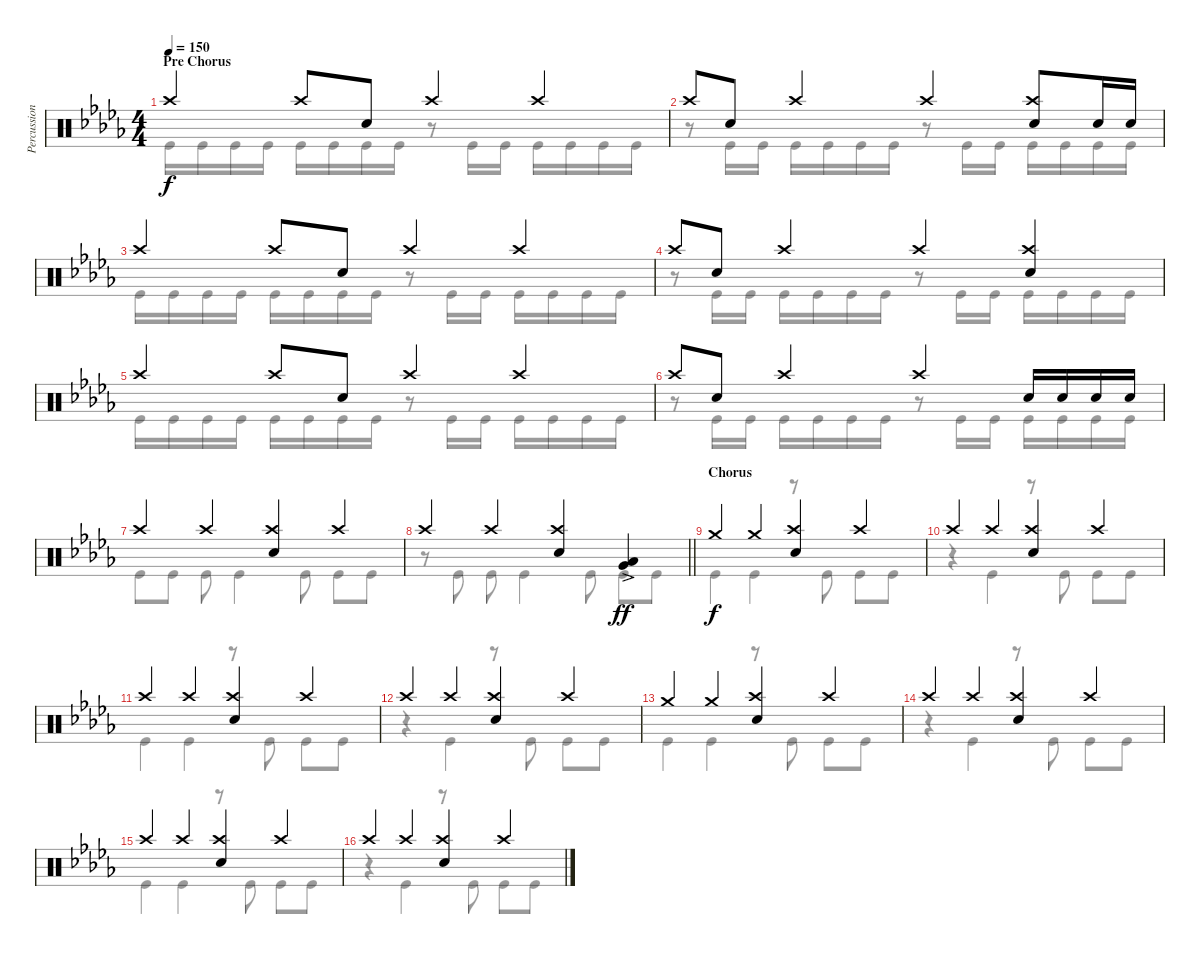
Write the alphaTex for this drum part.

\track ("Percussion" "Percussion") {instrument percussion}
\staff {score}
\articulation defaults
\voice
\ts (4 4)
\section ("" "Pre Chorus")
\tempo 150
\clef neutral
\ks bbminor "Crash high (hit)".4{dy f} "Crash high (hit)".8 "Electric Snare (hit)".8 "Crash high (hit)".4 "Crash high (hit)".4
|
"Crash high (hit)".8 "Electric Snare (hit)".8 "Crash high (hit)".4 "Crash high (hit)".4 ("Crash high (hit)" "Electric Snare (hit)").8 "Electric Snare (hit)".16 "Electric Snare (hit)".16 |
"Crash high (hit)".4 "Crash high (hit)".8 "Electric Snare (hit)".8 "Crash high (hit)".4 "Crash high (hit)".4 |
"Crash high (hit)".8 "Electric Snare (hit)".8 "Crash high (hit)".4 "Crash high (hit)".4 ("Crash high (hit)" "Electric Snare (hit)").4 |
"Crash high (hit)".4 "Crash high (hit)".8 "Electric Snare (hit)".8 "Crash high (hit)".4 "Crash high (hit)".4 |
"Crash high (hit)".8 "Electric Snare (hit)".8 "Crash high (hit)".4 "Crash high (hit)".4 "Electric Snare (hit)".16 "Electric Snare (hit)".16 "Electric Snare (hit)".16 "Electric Snare (hit)".16 |
"Crash high (hit)".4 "Crash high (hit)".4 ("Crash high (hit)" "Electric Snare (hit)").4 "Crash high (hit)".4 |
\barLineRight lightlight "Crash high (hit)".4 "Crash high (hit)".4
("Crash high (hit)" "Electric Snare (hit)").4 ("Low Tom (hit)"{ac} "Very Low Tom (hit)"{ac}).4{dy ff} |
\section ("" "Chorus")
"Crash medium (hit)".4{dy f} "Crash medium (hit)".4 ("Crash high (hit)" "Electric Snare (hit)").4 "Crash high (hit)".4 |
"Crash high (hit)".4 "Crash high (hit)".4 ("Crash high (hit)" "Electric Snare (hit)").4 "Crash high (hit)".4 |
"Crash high (hit)".4 "Crash high (hit)".4 ("Crash high (hit)" "Electric Snare (hit)").4 "Crash high (hit)".4 |
"Crash high (hit)".4 "Crash high (hit)".4 ("Crash high (hit)" "Electric Snare (hit)").4 "Crash high (hit)".4 |
"Crash medium (hit)".4 "Crash medium (hit)".4 ("Crash high (hit)" "Electric Snare (hit)").4 "Crash high (hit)".4 |
"Crash high (hit)".4 "Crash high (hit)".4 ("Crash high (hit)" "Electric Snare (hit)").4 "Crash high (hit)".4 |
"Crash high (hit)".4 "Crash high (hit)".4 ("Crash high (hit)" "Electric Snare (hit)").4 "Crash high (hit)".4 |
"Crash high (hit)".4 "Crash high (hit)".4 ("Crash high (hit)" "Electric Snare (hit)").4 "Crash high (hit)".4
\voice
\clef neutral
\ottava regular
\simile none
\ks bbminor "Kick (hit)".16{dy f} "Kick (hit)".16 "Kick (hit)".16 "Kick (hit)".16 "Kick (hit)".16 "Kick (hit)".16 "Kick (hit)".16 "Kick (hit)".16
r.8 "Kick (hit)".16 "Kick (hit)".16 "Kick (hit)".16 "Kick (hit)".16 "Kick (hit)".16 "Kick (hit)".16 |
r.8 "Kick (hit)".16 "Kick (hit)".16 "Kick (hit)".16 "Kick (hit)".16 "Kick (hit)".16 "Kick (hit)".16 r.8 "Kick (hit)".16 "Kick (hit)".16 "Kick (hit)".16 "Kick (hit)".16 "Kick (hit)".16 "Kick (hit)".16 |
"Kick (hit)".16 "Kick (hit)".16 "Kick (hit)".16 "Kick (hit)".16 "Kick (hit)".16 "Kick (hit)".16 "Kick (hit)".16 "Kick (hit)".16 r.8 "Kick (hit)".16 "Kick (hit)".16 "Kick (hit)".16 "Kick (hit)".16 "Kick (hit)".16 "Kick (hit)".16 |
r.8 "Kick (hit)".16 "Kick (hit)".16 "Kick (hit)".16 "Kick (hit)".16 "Kick (hit)".16 "Kick (hit)".16 r.8 "Kick (hit)".16 "Kick (hit)".16 "Kick (hit)".16 "Kick (hit)".16 "Kick (hit)".16 "Kick (hit)".16 |
"Kick (hit)".16 "Kick (hit)".16 "Kick (hit)".16 "Kick (hit)".16 "Kick (hit)".16 "Kick (hit)".16 "Kick (hit)".16 "Kick (hit)".16 r.8 "Kick (hit)".16 "Kick (hit)".16 "Kick (hit)".16 "Kick (hit)".16 "Kick (hit)".16 "Kick (hit)".16 |
r.8 "Kick (hit)".16 "Kick (hit)".16 "Kick (hit)".16 "Kick (hit)".16 "Kick (hit)".16 "Kick (hit)".16 r.8 "Kick (hit)".16 "Kick (hit)".16 "Kick (hit)".16 "Kick (hit)".16 "Kick (hit)".16 "Kick (hit)".16 |
"Kick (hit)".8 "Kick (hit)".8 "Kick (hit)".8 "Kick (hit)".4 "Kick (hit)".8 "Kick (hit)".8 "Kick (hit)".8 |
\barLineRight lightlight
r.8 "Kick (hit)".8 "Kick (hit)".8 "Kick (hit)".4 "Kick (hit)".8 "Kick (hit)".8 "Kick (hit)".8 |
"Kick (hit)".4 "Kick (hit)".4 r.8 "Kick (hit)".8 "Kick (hit)".8 "Kick (hit)".8 |
r.4 "Kick (hit)".4 r.8 "Kick (hit)".8 "Kick (hit)".8 "Kick (hit)".8 |
"Kick (hit)".4 "Kick (hit)".4 r.8 "Kick (hit)".8 "Kick (hit)".8 "Kick (hit)".8 |
r.4 "Kick (hit)".4 r.8 "Kick (hit)".8 "Kick (hit)".8 "Kick (hit)".8 |
"Kick (hit)".4 "Kick (hit)".4 r.8 "Kick (hit)".8 "Kick (hit)".8 "Kick (hit)".8 |
r.4 "Kick (hit)".4 r.8 "Kick (hit)".8 "Kick (hit)".8 "Kick (hit)".8 |
"Kick (hit)".4 "Kick (hit)".4 r.8 "Kick (hit)".8 "Kick (hit)".8 "Kick (hit)".8 |
r.4 "Kick (hit)".4 r.8 "Kick (hit)".8 "Kick (hit)".8 "Kick (hit)".8
